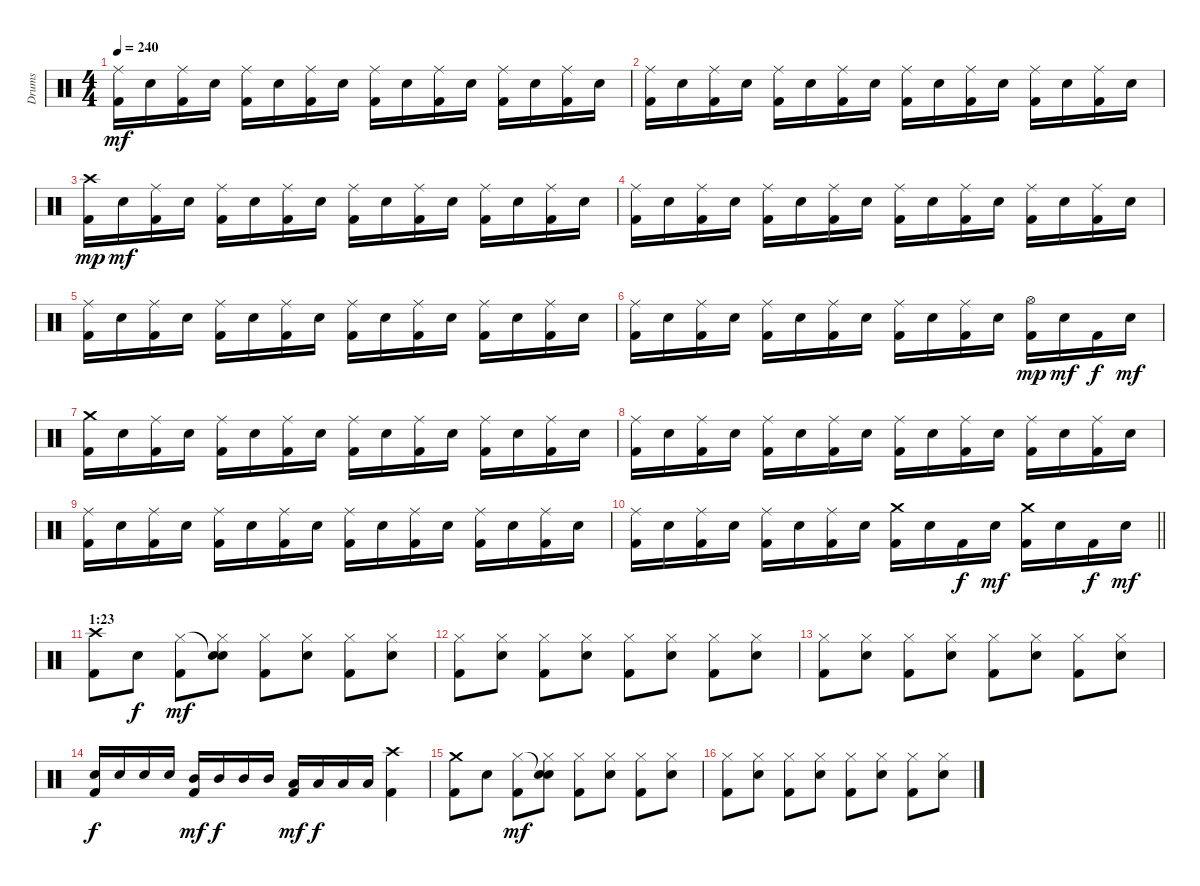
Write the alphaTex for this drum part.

\track ("Drums" "Drums") {instrument percussion}
\staff {score}
\articulation defaults
\ts (4 4)
\tempo 240
\clef neutral
\ks c
("Ride (middle)" "Kick (hit) 2").16{dy mf} "Electric Snare (hit)".16 ("Ride (middle)" "Kick (hit) 2").16 "Electric Snare (hit)".16 ("Ride (middle)" "Kick (hit) 2").16 "Electric Snare (hit)".16 ("Ride (middle)" "Kick (hit) 2").16 "Electric Snare (hit)".16 ("Ride (middle)" "Kick (hit) 2").16 "Electric Snare (hit)".16 ("Ride (middle)" "Kick (hit) 2").16 "Electric Snare (hit)".16 ("Ride (middle)" "Kick (hit) 2").16 "Electric Snare (hit)".16 ("Ride (middle)" "Kick (hit) 2").16 "Electric Snare (hit)".16 |
("Ride (middle)" "Kick (hit) 2").16 "Electric Snare (hit)".16 ("Ride (middle)" "Kick (hit) 2").16 "Electric Snare (hit)".16 ("Ride (middle)" "Kick (hit) 2").16 "Electric Snare (hit)".16 ("Ride (middle)" "Kick (hit) 2").16 "Electric Snare (hit)".16 ("Ride (middle)" "Kick (hit) 2").16 "Electric Snare (hit)".16 ("Ride (middle)" "Kick (hit) 2").16 "Electric Snare (hit)".16 ("Ride (middle)" "Kick (hit) 2").16 "Electric Snare (hit)".16 ("Ride (middle)" "Kick (hit) 2").16 "Electric Snare (hit)".16 |
("Crash high (hit)" "Kick (hit) 2").16{dy mp} "Electric Snare (hit)".16{dy mf} ("Ride (middle)" "Kick (hit) 2").16 "Electric Snare (hit)".16 ("Ride (middle)" "Kick (hit) 2").16 "Electric Snare (hit)".16 ("Ride (middle)" "Kick (hit) 2").16 "Electric Snare (hit)".16 ("Ride (middle)" "Kick (hit) 2").16 "Electric Snare (hit)".16 ("Ride (middle)" "Kick (hit) 2").16 "Electric Snare (hit)".16 ("Ride (middle)" "Kick (hit) 2").16 "Electric Snare (hit)".16 ("Ride (middle)" "Kick (hit) 2").16 "Electric Snare (hit)".16 |
("Ride (middle)" "Kick (hit) 2").16 "Electric Snare (hit)".16 ("Ride (middle)" "Kick (hit) 2").16 "Electric Snare (hit)".16 ("Ride (middle)" "Kick (hit) 2").16 "Electric Snare (hit)".16 ("Ride (middle)" "Kick (hit) 2").16 "Electric Snare (hit)".16 ("Ride (middle)" "Kick (hit) 2").16 "Electric Snare (hit)".16 ("Ride (middle)" "Kick (hit) 2").16 "Electric Snare (hit)".16 ("Ride (middle)" "Kick (hit) 2").16 "Electric Snare (hit)".16 ("Ride (middle)" "Kick (hit) 2").16 "Electric Snare (hit)".16 |
("Ride (middle)" "Kick (hit) 2").16 "Electric Snare (hit)".16 ("Ride (middle)" "Kick (hit) 2").16 "Electric Snare (hit)".16 ("Ride (middle)" "Kick (hit) 2").16 "Electric Snare (hit)".16 ("Ride (middle)" "Kick (hit) 2").16 "Electric Snare (hit)".16 ("Ride (middle)" "Kick (hit) 2").16 "Electric Snare (hit)".16 ("Ride (middle)" "Kick (hit) 2").16 "Electric Snare (hit)".16 ("Ride (middle)" "Kick (hit) 2").16 "Electric Snare (hit)".16 ("Ride (middle)" "Kick (hit) 2").16 "Electric Snare (hit)".16 |
("Ride (middle)" "Kick (hit) 2").16 "Electric Snare (hit)".16 ("Ride (middle)" "Kick (hit) 2").16 "Electric Snare (hit)".16 ("Ride (middle)" "Kick (hit) 2").16 "Electric Snare (hit)".16 ("Ride (middle)" "Kick (hit) 2").16 "Electric Snare (hit)".16 ("Ride (middle)" "Kick (hit) 2").16 "Electric Snare (hit)".16 ("Ride (middle)" "Kick (hit) 2").16 "Electric Snare (hit)".16 ("Hi-Hat (open)" "Kick (hit) 2").16{dy mp} "Electric Snare (hit)".16{dy mf} "Kick (hit) 2".16{dy f} "Electric Snare (hit)".16{dy mf} |
("Crash medium (hit)" "Kick (hit) 2").16 "Electric Snare (hit)".16 ("Ride (middle)" "Kick (hit) 2").16 "Electric Snare (hit)".16 ("Ride (middle)" "Kick (hit) 2").16 "Electric Snare (hit)".16 ("Ride (middle)" "Kick (hit) 2").16 "Electric Snare (hit)".16 ("Ride (middle)" "Kick (hit) 2").16 "Electric Snare (hit)".16 ("Ride (middle)" "Kick (hit) 2").16 "Electric Snare (hit)".16 ("Ride (middle)" "Kick (hit) 2").16 "Electric Snare (hit)".16 ("Ride (middle)" "Kick (hit) 2").16 "Electric Snare (hit)".16 |
("Ride (middle)" "Kick (hit) 2").16 "Electric Snare (hit)".16 ("Ride (middle)" "Kick (hit) 2").16 "Electric Snare (hit)".16 ("Ride (middle)" "Kick (hit) 2").16 "Electric Snare (hit)".16 ("Ride (middle)" "Kick (hit) 2").16 "Electric Snare (hit)".16 ("Ride (middle)" "Kick (hit) 2").16 "Electric Snare (hit)".16 ("Ride (middle)" "Kick (hit) 2").16 "Electric Snare (hit)".16 ("Ride (middle)" "Kick (hit) 2").16 "Electric Snare (hit)".16 ("Ride (middle)" "Kick (hit) 2").16 "Electric Snare (hit)".16 |
("Ride (middle)" "Kick (hit) 2").16 "Electric Snare (hit)".16 ("Ride (middle)" "Kick (hit) 2").16 "Electric Snare (hit)".16 ("Ride (middle)" "Kick (hit) 2").16 "Electric Snare (hit)".16 ("Ride (middle)" "Kick (hit) 2").16 "Electric Snare (hit)".16 ("Ride (middle)" "Kick (hit) 2").16 "Electric Snare (hit)".16 ("Ride (middle)" "Kick (hit) 2").16 "Electric Snare (hit)".16 ("Ride (middle)" "Kick (hit) 2").16 "Electric Snare (hit)".16 ("Ride (middle)" "Kick (hit) 2").16 "Electric Snare (hit)".16 |
\barLineRight lightlight
("Ride (middle)" "Kick (hit) 2").16 "Electric Snare (hit)".16 ("Ride (middle)" "Kick (hit) 2").16 "Electric Snare (hit)".16 ("Ride (middle)" "Kick (hit) 2").16 "Electric Snare (hit)".16 ("Ride (middle)" "Kick (hit) 2").16 "Electric Snare (hit)".16 ("Crash medium (hit)" "Kick (hit) 2").16 "Electric Snare (hit)".16 "Kick (hit) 2".16{dy f} "Electric Snare (hit)".16{dy mf} ("Crash medium (hit)" "Kick (hit) 2").16 "Electric Snare (hit)".16 "Kick (hit) 2".16{dy f} "Electric Snare (hit)".16{dy mf} |
\section ("" "1:23")
("Crash high (hit)" "Kick (hit) 2").8 "Electric Snare (hit)".8{dy f} ("Hi-Hat (closed)" "Kick (hit) 2").8{dy mf} ("Snare (hit)"{t} "Hi-Hat (closed)" "Electric Snare (hit)").8 ("Hi-Hat (closed)" "Kick (hit) 2").8 ("Hi-Hat (closed)" "Electric Snare (hit)").8 ("Hi-Hat (closed)" "Kick (hit) 2").8 ("Hi-Hat (closed)" "Electric Snare (hit)").8 |
("Hi-Hat (closed)" "Kick (hit) 2").8 ("Hi-Hat (closed)" "Electric Snare (hit)").8 ("Hi-Hat (closed)" "Kick (hit) 2").8 ("Hi-Hat (closed)" "Electric Snare (hit)").8 ("Hi-Hat (closed)" "Kick (hit) 2").8 ("Hi-Hat (closed)" "Electric Snare (hit)").8 ("Hi-Hat (closed)" "Kick (hit) 2").8 ("Hi-Hat (closed)" "Electric Snare (hit)").8 |
("Hi-Hat (closed)" "Kick (hit) 2").8 ("Hi-Hat (closed)" "Electric Snare (hit)").8 ("Hi-Hat (closed)" "Kick (hit) 2").8 ("Hi-Hat (closed)" "Electric Snare (hit)").8 ("Hi-Hat (closed)" "Kick (hit) 2").8 ("Hi-Hat (closed)" "Electric Snare (hit)").8 ("Hi-Hat (closed)" "Kick (hit) 2").8 ("Hi-Hat (closed)" "Electric Snare (hit)").8 |
("Electric Snare (hit)" "Kick (hit) 2").16{dy f} "Electric Snare (hit)".16 "Electric Snare (hit)".16 "Electric Snare (hit)".16 ("Mid Tom (hit)" "Kick (hit) 2").16{dy mf} "Mid Tom (hit)".16{dy f} "Mid Tom (hit)".16 "Mid Tom (hit)".16 ("Low Tom (hit)" "Kick (hit) 2").16{dy mf} "Low Tom (hit)".16{dy f} "Low Tom (hit)".16 "Low Tom (hit)".16 ("Crash high (hit)" "Kick (hit) 2").4 |
("Crash medium (hit)" "Kick (hit) 2").8 "Electric Snare (hit)".8 ("Hi-Hat (closed)" "Kick (hit) 2").8{dy mf} ("Snare (hit)"{t} "Hi-Hat (closed)" "Electric Snare (hit)").8 ("Hi-Hat (closed)" "Kick (hit) 2").8 ("Hi-Hat (closed)" "Electric Snare (hit)").8 ("Hi-Hat (closed)" "Kick (hit) 2").8 ("Hi-Hat (closed)" "Electric Snare (hit)").8 |
("Hi-Hat (closed)" "Kick (hit) 2").8 ("Hi-Hat (closed)" "Electric Snare (hit)").8 ("Hi-Hat (closed)" "Kick (hit) 2").8 ("Hi-Hat (closed)" "Electric Snare (hit)").8 ("Hi-Hat (closed)" "Kick (hit) 2").8 ("Hi-Hat (closed)" "Electric Snare (hit)").8 ("Hi-Hat (closed)" "Kick (hit) 2").8 ("Hi-Hat (closed)" "Electric Snare (hit)").8
